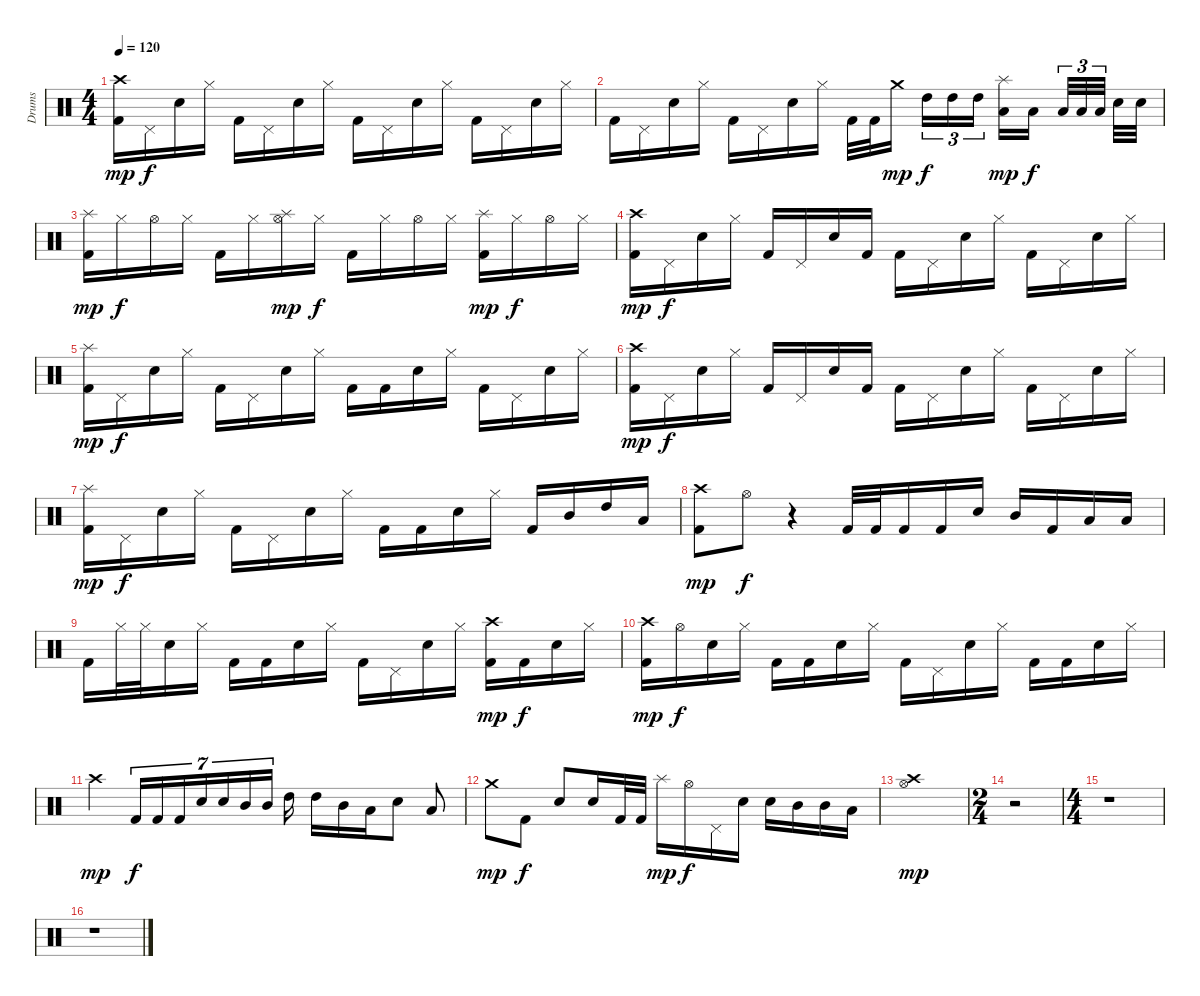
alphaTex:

\track ("Drums" "Drums") {instrument percussion}
\staff {score}
\articulation defaults
\ts (4 4)
\tempo 120
\clef neutral
\ks c
("Kick (hit) 2" "Crash high (hit)").16{dy mp} "Pedal Hi-Hat (hit)".16{dy f} "Electric Snare (hit)".16 "Hi-Hat (closed)".16 "Kick (hit) 2".16 "Pedal Hi-Hat (hit)".16 "Electric Snare (hit)".16 "Hi-Hat (closed)".16 "Kick (hit) 2".16 "Pedal Hi-Hat (hit)".16 "Electric Snare (hit)".16 "Hi-Hat (closed)".16 "Kick (hit) 2".16 "Pedal Hi-Hat (hit)".16 "Electric Snare (hit)".16 "Hi-Hat (closed)".16 |
"Kick (hit) 2".16 "Pedal Hi-Hat (hit)".16 "Electric Snare (hit)".16 "Hi-Hat (closed)".16 "Kick (hit) 2".16 "Pedal Hi-Hat (hit)".16 "Electric Snare (hit)".16 "Hi-Hat (closed)".16 "Kick (hit) 2".32 "Kick (hit) 2".32 "Crash medium (hit)".16{dy mp} "High Tom (hit)".16{tu (3 2) dy f} "High Tom (hit)".16{tu (3 2)} "High Tom (hit)".16{tu (3 2)} ("Low Tom (hit)" "Splash (hit)").16{dy mp} "Low Tom (hit)".16{dy f} "Low Floor Tom (hit)".32{tu (3 2)} "Low Floor Tom (hit)".32{tu (3 2)} "Low Floor Tom (hit)".32{tu (3 2)} "Electric Snare (hit)".32 "Electric Snare (hit)".32 |
("Kick (hit) 2" "Splash (hit)").16{dy mp} "Hi-Hat (closed)".16{dy f} "Hi-Hat (open)".16 "Hi-Hat (closed)".16 "Kick (hit) 2".16 "Hi-Hat (closed)".16 ("Hi-Hat (open)" "Splash (hit)").16{dy mp} "Hi-Hat (closed)".16{dy f} "Kick (hit) 2".16 "Hi-Hat (closed)".16 "Hi-Hat (open)".16 "Hi-Hat (closed)".16 ("Kick (hit) 2" "Splash (hit)").16{dy mp} "Hi-Hat (closed)".16{dy f} "Hi-Hat (open)".16 "Hi-Hat (closed)".16 |
("Kick (hit) 2" "Crash high (hit)").16{dy mp} "Pedal Hi-Hat (hit)".16{dy f} "Electric Snare (hit)".16 "Hi-Hat (closed)".16 "Kick (hit) 2".16 "Pedal Hi-Hat (hit)".16 "Electric Snare (hit)".16 "Kick (hit) 2".16 "Kick (hit) 2".16 "Pedal Hi-Hat (hit)".16 "Electric Snare (hit)".16 "Hi-Hat (closed)".16 "Kick (hit) 2".16 "Pedal Hi-Hat (hit)".16 "Electric Snare (hit)".16 "Hi-Hat (closed)".16 |
("Kick (hit) 2" "Splash (hit)").16{dy mp} "Pedal Hi-Hat (hit)".16{dy f} "Electric Snare (hit)".16 "Hi-Hat (closed)".16 "Kick (hit) 2".16 "Pedal Hi-Hat (hit)".16 "Electric Snare (hit)".16 "Hi-Hat (closed)".16 "Kick (hit) 2".16 "Kick (hit) 2".16 "Electric Snare (hit)".16 "Hi-Hat (closed)".16 "Kick (hit) 2".16 "Pedal Hi-Hat (hit)".16 "Electric Snare (hit)".16 "Hi-Hat (closed)".16 |
("Kick (hit) 2" "Crash high (hit)").16{dy mp} "Pedal Hi-Hat (hit)".16{dy f} "Electric Snare (hit)".16 "Hi-Hat (closed)".16 "Kick (hit) 2".16 "Pedal Hi-Hat (hit)".16 "Electric Snare (hit)".16 "Kick (hit) 2".16 "Kick (hit) 2".16 "Pedal Hi-Hat (hit)".16 "Electric Snare (hit)".16 "Hi-Hat (closed)".16 "Kick (hit) 2".16 "Pedal Hi-Hat (hit)".16 "Electric Snare (hit)".16 "Hi-Hat (closed)".16 |
("Kick (hit) 2" "Splash (hit)").16{dy mp} "Pedal Hi-Hat (hit)".16{dy f} "Electric Snare (hit)".16 "Hi-Hat (closed)".16 "Kick (hit) 2".16 "Pedal Hi-Hat (hit)".16 "Electric Snare (hit)".16 "Hi-Hat (closed)".16 "Kick (hit) 2".16 "Kick (hit) 2".16 "Electric Snare (hit)".16 "Hi-Hat (closed)".16 "Kick (hit) 2".16 "Mid Tom (hit)".16 "High Tom (hit)".16 "Low Tom (hit)".16 |
("Kick (hit) 2" "Crash high (hit)").8{dy mp} "Hi-Hat (open)".8{dy f} r.4 "Kick (hit) 2".32 "Kick (hit) 2".32 "Kick (hit) 2".16 "Kick (hit) 2".16 "Electric Snare (hit)".16 "Mid Tom (hit)".16 "Kick (hit) 2".16 "Low Tom (hit)".16 "Low Tom (hit)".16 |
"Kick (hit) 2".16 "Hi-Hat (closed)".32 "Hi-Hat (closed)".32 "Electric Snare (hit)".16 "Hi-Hat (closed)".16 "Kick (hit) 2".16 "Kick (hit) 2".16 "Electric Snare (hit)".16 "Hi-Hat (closed)".16 "Kick (hit) 2".16 "Pedal Hi-Hat (hit)".16 "Electric Snare (hit)".16 "Hi-Hat (closed)".16 ("Kick (hit) 2" "Crash high (hit)").16{dy mp} "Kick (hit) 2".16{dy f} "Electric Snare (hit)".16 "Hi-Hat (closed)".16 |
("Kick (hit) 2" "Crash high (hit)").16{dy mp} "Hi-Hat (open)".16{dy f} "Electric Snare (hit)".16 "Hi-Hat (closed)".16 "Kick (hit) 2".16 "Kick (hit) 2".16 "Electric Snare (hit)".16 "Hi-Hat (closed)".16 "Kick (hit) 2".16 "Pedal Hi-Hat (hit)".16 "Electric Snare (hit)".16 "Hi-Hat (closed)".16 "Kick (hit) 2".16 "Kick (hit) 2".16 "Electric Snare (hit)".16 "Hi-Hat (closed)".16 |
"Crash high (hit)".4{dy mp} "Kick (hit) 2".16{tu (7 4) dy f} "Kick (hit) 2".16{tu (7 4)} "Kick (hit) 2".16{tu (7 4)} "Electric Snare (hit)".16{tu (7 4)} "Electric Snare (hit)".16{tu (7 4)} "Mid Tom (hit)".16{tu (7 4)} "Mid Tom (hit)".16{tu (7 4)} "High Tom (hit)".16 "High Tom (hit)".16 "Mid Tom (hit)".16 "Low Tom (hit)".16 "Electric Snare (hit)".8 "Low Tom (hit)".8 |
"Crash medium (hit)".8{dy mp} "Kick (hit) 2".8{dy f} "Electric Snare (hit)".8 "Electric Snare (hit)".16 "Kick (hit) 2".32 "Kick (hit) 2".32 "Splash (hit)".16{dy mp} "Hi-Hat (open)".16{dy f} "Pedal Hi-Hat (hit)".16 "Electric Snare (hit)".16 "Electric Snare (hit)".16 "Mid Tom (hit)".16 "Mid Tom (hit)".16 "Low Tom (hit)".16 |
("Hi-Hat (open)" "Crash high (hit)").1{dy mp} |
\ts (2 4)
r.2 |
\ts (4 4)
r.1 |
r.1
